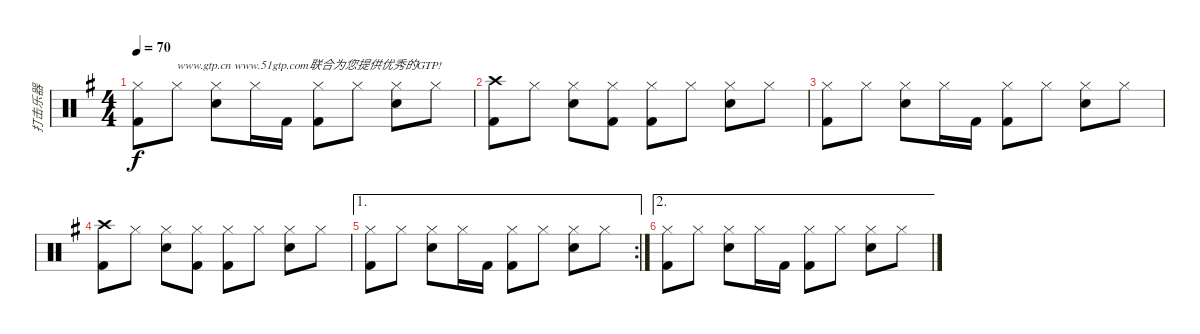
\track ("打击乐器" "打击乐器") {instrument percussion}
\staff {score}
\articulation defaults
\ts (4 4)
\tempo 70
\clef neutral
\ks g
("Hi-Hat (closed)" "Kick (hit) 2").8{dy f} "Hi-Hat (closed)".8{txt "www.gtp.cn www.51gtp.com联合为您提供优秀的GTP!"} ("Hi-Hat (closed)" "Snare (hit) 2").8 "Hi-Hat (closed)".16 "Kick (hit) 2".16 ("Hi-Hat (closed)" "Kick (hit) 2").8 "Hi-Hat (closed)".8 ("Hi-Hat (closed)" "Snare (hit) 2").8 "Hi-Hat (closed)".8 |
("Crash high (hit)" "Kick (hit) 2").8 "Hi-Hat (closed)".8 ("Hi-Hat (closed)" "Snare (hit) 2").8 ("Hi-Hat (closed)" "Kick (hit) 2").8 ("Hi-Hat (closed)" "Kick (hit) 2").8 "Hi-Hat (closed)".8 ("Hi-Hat (closed)" "Snare (hit) 2").8 "Hi-Hat (closed)".8 |
("Hi-Hat (closed)" "Kick (hit) 2").8 "Hi-Hat (closed)".8 ("Hi-Hat (closed)" "Snare (hit) 2").8 "Hi-Hat (closed)".16 "Kick (hit) 2".16 ("Hi-Hat (closed)" "Kick (hit) 2").8 "Hi-Hat (closed)".8 ("Hi-Hat (closed)" "Snare (hit) 2").8 "Hi-Hat (closed)".8 |
("Crash high (hit)" "Kick (hit) 2").8 "Hi-Hat (closed)".8 ("Hi-Hat (closed)" "Snare (hit) 2").8 ("Hi-Hat (closed)" "Kick (hit) 2").8 ("Hi-Hat (closed)" "Kick (hit) 2").8 "Hi-Hat (closed)".8 ("Hi-Hat (closed)" "Snare (hit) 2").8 "Hi-Hat (closed)".8 |
\ae 1
\rc 2
("Hi-Hat (closed)" "Kick (hit) 2").8 "Hi-Hat (closed)".8 ("Hi-Hat (closed)" "Snare (hit) 2").8 "Hi-Hat (closed)".16 "Kick (hit) 2".16 ("Hi-Hat (closed)" "Kick (hit) 2").8 "Hi-Hat (closed)".8 ("Hi-Hat (closed)" "Snare (hit) 2").8 "Hi-Hat (closed)".8 |
\ae 2
("Hi-Hat (closed)" "Kick (hit) 2").8 "Hi-Hat (closed)".8 ("Hi-Hat (closed)" "Snare (hit) 2").8 "Hi-Hat (closed)".16 "Kick (hit) 2".16 ("Hi-Hat (closed)" "Kick (hit) 2").8 "Hi-Hat (closed)".8 ("Hi-Hat (closed)" "Snare (hit) 2").8 "Hi-Hat (closed)".8
